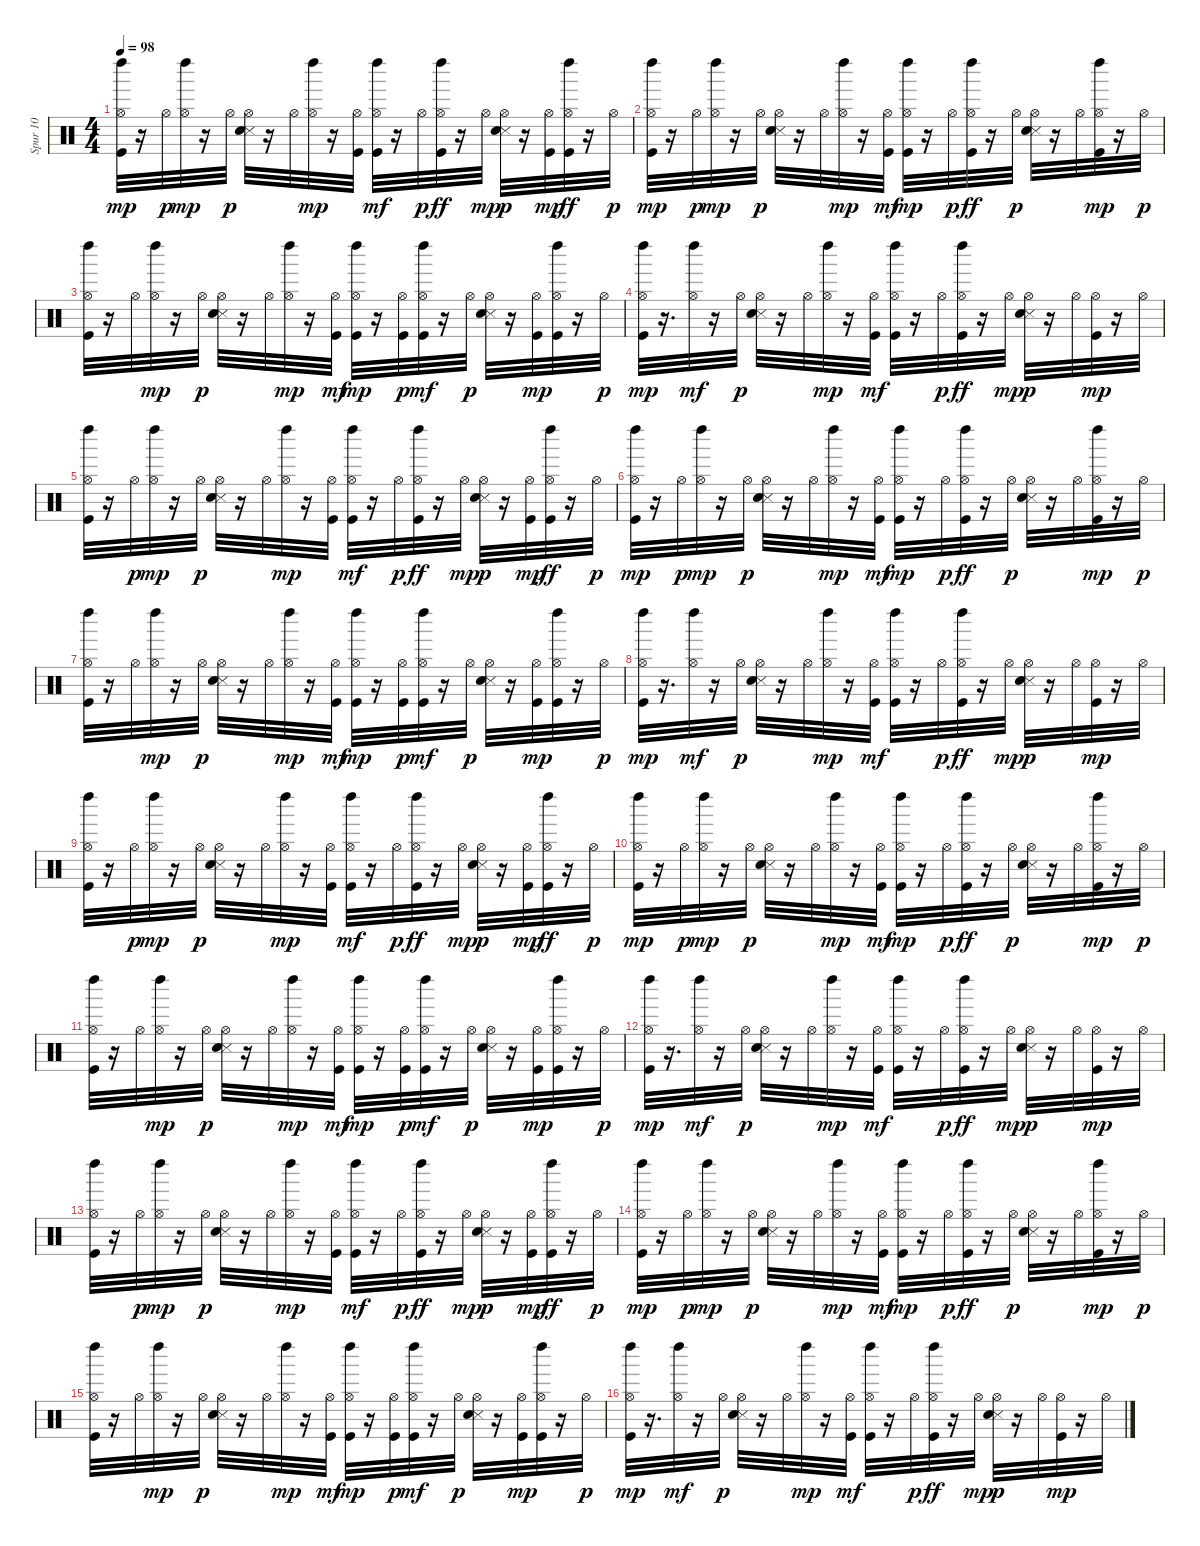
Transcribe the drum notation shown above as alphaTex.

\track ("Spur 10" "Spur 10") {instrument percussion}
\staff {score}
\articulation defaults
\ts (4 4)
\tempo 98
\clef neutral
\ks c
("Hi-Hat (open)" "Kick (hit)" "Left Maraca (hit)").32{dy mp} r.16 "Hi-Hat (open)".32{dy p} ("Hi-Hat (open)" "Left Maraca (hit)").32{dy mp} r.16 "Hi-Hat (open)".32{dy p} ("Hi-Hat (open)" "Snare (side stick) 3" "Electric Snare (hit)").32 r.16 "Hi-Hat (open)".32 ("Hi-Hat (open)" "Left Maraca (hit)").32{dy mp} r.16 ("Hi-Hat (open)" "Kick (hit)").32 ("Hi-Hat (open)" "Kick (hit)" "Left Maraca (hit)").32{dy mf} r.16 "Hi-Hat (open)".32{dy p} ("Hi-Hat (open)" "Kick (hit)" "Left Maraca (hit)").32{dy ff} r.16 "Hi-Hat (open)".32{dy mp} ("Hi-Hat (open)" "Snare (side stick) 3" "Electric Snare (hit)").32{dy p} r.16 ("Hi-Hat (open)" "Kick (hit)").32{dy mp} ("Hi-Hat (open)" "Kick (hit)" "Left Maraca (hit)").32{dy ff} r.16 "Hi-Hat (open)".32{dy p} |
("Hi-Hat (open)" "Kick (hit)" "Left Maraca (hit)").32{dy mp} r.16 "Hi-Hat (open)".32{dy p} ("Hi-Hat (open)" "Left Maraca (hit)").32{dy mp} r.16 "Hi-Hat (open)".32{dy p} ("Hi-Hat (open)" "Snare (side stick) 3" "Electric Snare (hit)").32 r.16 "Hi-Hat (open)".32 ("Hi-Hat (open)" "Left Maraca (hit)").32{dy mp} r.16 ("Hi-Hat (open)" "Kick (hit)").32{dy mf} ("Hi-Hat (open)" "Kick (hit)" "Left Maraca (hit)").32{dy mp} r.16 "Hi-Hat (open)".32{dy p} ("Hi-Hat (open)" "Kick (hit)" "Left Maraca (hit)").32{dy ff} r.16 "Hi-Hat (open)".32{dy p} ("Hi-Hat (open)" "Snare (side stick) 3" "Electric Snare (hit)").32 r.16 "Hi-Hat (open)".32 ("Hi-Hat (open)" "Kick (hit)" "Left Maraca (hit)").32{dy mp} r.16 "Hi-Hat (open)".32{dy p} |
("Hi-Hat (open)" "Kick (hit)" "Left Maraca (hit)").32 r.16 "Hi-Hat (open)".32 ("Hi-Hat (open)" "Left Maraca (hit)").32{dy mp} r.16 "Hi-Hat (open)".32{dy p} ("Hi-Hat (open)" "Snare (side stick) 3" "Electric Snare (hit)").32 r.16 "Hi-Hat (open)".32 ("Hi-Hat (open)" "Left Maraca (hit)").32{dy mp} r.16 ("Hi-Hat (open)" "Kick (hit)").32{dy mf} ("Hi-Hat (open)" "Kick (hit)" "Left Maraca (hit)").32{dy mp} r.16 ("Hi-Hat (open)" "Kick (hit)").32{dy p} ("Hi-Hat (open)" "Kick (hit)" "Left Maraca (hit)").32{dy mf} r.16 "Hi-Hat (open)".32{dy p} ("Hi-Hat (open)" "Snare (side stick) 3" "Electric Snare (hit)").32 r.16 ("Hi-Hat (open)" "Kick (hit)").32{dy mp} ("Hi-Hat (open)" "Kick (hit)" "Left Maraca (hit)").32 r.16 "Hi-Hat (open)".32{dy p} |
("Hi-Hat (open)" "Kick (hit)" "Left Maraca (hit)").32{dy mp} r.16{d} ("Hi-Hat (open)" "Left Maraca (hit)").32{dy mf} r.16 "Hi-Hat (open)".32{dy p} ("Hi-Hat (open)" "Snare (side stick) 3" "Electric Snare (hit)").32 r.16 "Hi-Hat (open)".32 ("Hi-Hat (open)" "Left Maraca (hit)").32{dy mp} r.16 ("Hi-Hat (open)" "Kick (hit)").32{dy mf} ("Hi-Hat (open)" "Kick (hit)" "Left Maraca (hit)").32 r.16 "Hi-Hat (open)".32{dy p} ("Hi-Hat (open)" "Kick (hit)" "Left Maraca (hit)").32{dy ff} r.16 "Hi-Hat (open)".32{dy mp} ("Hi-Hat (open)" "Snare (side stick) 3" "Electric Snare (hit)").32{dy p} r.16 "Hi-Hat (open)".32 ("Hi-Hat (open)" "Kick (hit)").32{dy mp} r.16 "Hi-Hat (open)".32 |
("Hi-Hat (open)" "Kick (hit)" "Left Maraca (hit)").32 r.16 "Hi-Hat (open)".32{dy p} ("Hi-Hat (open)" "Left Maraca (hit)").32{dy mp} r.16 "Hi-Hat (open)".32{dy p} ("Hi-Hat (open)" "Snare (side stick) 3" "Electric Snare (hit)").32 r.16 "Hi-Hat (open)".32 ("Hi-Hat (open)" "Left Maraca (hit)").32{dy mp} r.16 ("Hi-Hat (open)" "Kick (hit)").32 ("Hi-Hat (open)" "Kick (hit)" "Left Maraca (hit)").32{dy mf} r.16 "Hi-Hat (open)".32{dy p} ("Hi-Hat (open)" "Kick (hit)" "Left Maraca (hit)").32{dy ff} r.16 "Hi-Hat (open)".32{dy mp} ("Hi-Hat (open)" "Snare (side stick) 3" "Electric Snare (hit)").32{dy p} r.16 ("Hi-Hat (open)" "Kick (hit)").32{dy mp} ("Hi-Hat (open)" "Kick (hit)" "Left Maraca (hit)").32{dy ff} r.16 "Hi-Hat (open)".32{dy p} |
("Hi-Hat (open)" "Kick (hit)" "Left Maraca (hit)").32{dy mp} r.16 "Hi-Hat (open)".32{dy p} ("Hi-Hat (open)" "Left Maraca (hit)").32{dy mp} r.16 "Hi-Hat (open)".32{dy p} ("Hi-Hat (open)" "Snare (side stick) 3" "Electric Snare (hit)").32 r.16 "Hi-Hat (open)".32 ("Hi-Hat (open)" "Left Maraca (hit)").32{dy mp} r.16 ("Hi-Hat (open)" "Kick (hit)").32{dy mf} ("Hi-Hat (open)" "Kick (hit)" "Left Maraca (hit)").32{dy mp} r.16 "Hi-Hat (open)".32{dy p} ("Hi-Hat (open)" "Kick (hit)" "Left Maraca (hit)").32{dy ff} r.16 "Hi-Hat (open)".32{dy p} ("Hi-Hat (open)" "Snare (side stick) 3" "Electric Snare (hit)").32 r.16 "Hi-Hat (open)".32 ("Hi-Hat (open)" "Kick (hit)" "Left Maraca (hit)").32{dy mp} r.16 "Hi-Hat (open)".32{dy p} |
("Hi-Hat (open)" "Kick (hit)" "Left Maraca (hit)").32 r.16 "Hi-Hat (open)".32 ("Hi-Hat (open)" "Left Maraca (hit)").32{dy mp} r.16 "Hi-Hat (open)".32{dy p} ("Hi-Hat (open)" "Snare (side stick) 3" "Electric Snare (hit)").32 r.16 "Hi-Hat (open)".32 ("Hi-Hat (open)" "Left Maraca (hit)").32{dy mp} r.16 ("Hi-Hat (open)" "Kick (hit)").32{dy mf} ("Hi-Hat (open)" "Kick (hit)" "Left Maraca (hit)").32{dy mp} r.16 ("Hi-Hat (open)" "Kick (hit)").32{dy p} ("Hi-Hat (open)" "Kick (hit)" "Left Maraca (hit)").32{dy mf} r.16 "Hi-Hat (open)".32{dy p} ("Hi-Hat (open)" "Snare (side stick) 3" "Electric Snare (hit)").32 r.16 ("Hi-Hat (open)" "Kick (hit)").32{dy mp} ("Hi-Hat (open)" "Kick (hit)" "Left Maraca (hit)").32 r.16 "Hi-Hat (open)".32{dy p} |
("Hi-Hat (open)" "Kick (hit)" "Left Maraca (hit)").32{dy mp} r.16{d} ("Hi-Hat (open)" "Left Maraca (hit)").32{dy mf} r.16 "Hi-Hat (open)".32{dy p} ("Hi-Hat (open)" "Snare (side stick) 3" "Electric Snare (hit)").32 r.16 "Hi-Hat (open)".32 ("Hi-Hat (open)" "Left Maraca (hit)").32{dy mp} r.16 ("Hi-Hat (open)" "Kick (hit)").32{dy mf} ("Hi-Hat (open)" "Kick (hit)" "Left Maraca (hit)").32 r.16 "Hi-Hat (open)".32{dy p} ("Hi-Hat (open)" "Kick (hit)" "Left Maraca (hit)").32{dy ff} r.16 "Hi-Hat (open)".32{dy mp} ("Hi-Hat (open)" "Snare (side stick) 3" "Electric Snare (hit)").32{dy p} r.16 "Hi-Hat (open)".32 ("Hi-Hat (open)" "Kick (hit)").32{dy mp} r.16 "Hi-Hat (open)".32 |
("Hi-Hat (open)" "Kick (hit)" "Left Maraca (hit)").32 r.16 "Hi-Hat (open)".32{dy p} ("Hi-Hat (open)" "Left Maraca (hit)").32{dy mp} r.16 "Hi-Hat (open)".32{dy p} ("Hi-Hat (open)" "Snare (side stick) 3" "Electric Snare (hit)").32 r.16 "Hi-Hat (open)".32 ("Hi-Hat (open)" "Left Maraca (hit)").32{dy mp} r.16 ("Hi-Hat (open)" "Kick (hit)").32 ("Hi-Hat (open)" "Kick (hit)" "Left Maraca (hit)").32{dy mf} r.16 "Hi-Hat (open)".32{dy p} ("Hi-Hat (open)" "Kick (hit)" "Left Maraca (hit)").32{dy ff} r.16 "Hi-Hat (open)".32{dy mp} ("Hi-Hat (open)" "Snare (side stick) 3" "Electric Snare (hit)").32{dy p} r.16 ("Hi-Hat (open)" "Kick (hit)").32{dy mp} ("Hi-Hat (open)" "Kick (hit)" "Left Maraca (hit)").32{dy ff} r.16 "Hi-Hat (open)".32{dy p} |
("Hi-Hat (open)" "Kick (hit)" "Left Maraca (hit)").32{dy mp} r.16 "Hi-Hat (open)".32{dy p} ("Hi-Hat (open)" "Left Maraca (hit)").32{dy mp} r.16 "Hi-Hat (open)".32{dy p} ("Hi-Hat (open)" "Snare (side stick) 3" "Electric Snare (hit)").32 r.16 "Hi-Hat (open)".32 ("Hi-Hat (open)" "Left Maraca (hit)").32{dy mp} r.16 ("Hi-Hat (open)" "Kick (hit)").32{dy mf} ("Hi-Hat (open)" "Kick (hit)" "Left Maraca (hit)").32{dy mp} r.16 "Hi-Hat (open)".32{dy p} ("Hi-Hat (open)" "Kick (hit)" "Left Maraca (hit)").32{dy ff} r.16 "Hi-Hat (open)".32{dy p} ("Hi-Hat (open)" "Snare (side stick) 3" "Electric Snare (hit)").32 r.16 "Hi-Hat (open)".32 ("Hi-Hat (open)" "Kick (hit)" "Left Maraca (hit)").32{dy mp} r.16 "Hi-Hat (open)".32{dy p} |
("Hi-Hat (open)" "Kick (hit)" "Left Maraca (hit)").32 r.16 "Hi-Hat (open)".32 ("Hi-Hat (open)" "Left Maraca (hit)").32{dy mp} r.16 "Hi-Hat (open)".32{dy p} ("Hi-Hat (open)" "Snare (side stick) 3" "Electric Snare (hit)").32 r.16 "Hi-Hat (open)".32 ("Hi-Hat (open)" "Left Maraca (hit)").32{dy mp} r.16 ("Hi-Hat (open)" "Kick (hit)").32{dy mf} ("Hi-Hat (open)" "Kick (hit)" "Left Maraca (hit)").32{dy mp} r.16 ("Hi-Hat (open)" "Kick (hit)").32{dy p} ("Hi-Hat (open)" "Kick (hit)" "Left Maraca (hit)").32{dy mf} r.16 "Hi-Hat (open)".32{dy p} ("Hi-Hat (open)" "Snare (side stick) 3" "Electric Snare (hit)").32 r.16 ("Hi-Hat (open)" "Kick (hit)").32{dy mp} ("Hi-Hat (open)" "Kick (hit)" "Left Maraca (hit)").32 r.16 "Hi-Hat (open)".32{dy p} |
("Hi-Hat (open)" "Kick (hit)" "Left Maraca (hit)").32{dy mp} r.16{d} ("Hi-Hat (open)" "Left Maraca (hit)").32{dy mf} r.16 "Hi-Hat (open)".32{dy p} ("Hi-Hat (open)" "Snare (side stick) 3" "Electric Snare (hit)").32 r.16 "Hi-Hat (open)".32 ("Hi-Hat (open)" "Left Maraca (hit)").32{dy mp} r.16 ("Hi-Hat (open)" "Kick (hit)").32{dy mf} ("Hi-Hat (open)" "Kick (hit)" "Left Maraca (hit)").32 r.16 "Hi-Hat (open)".32{dy p} ("Hi-Hat (open)" "Kick (hit)" "Left Maraca (hit)").32{dy ff} r.16 "Hi-Hat (open)".32{dy mp} ("Hi-Hat (open)" "Snare (side stick) 3" "Electric Snare (hit)").32{dy p} r.16 "Hi-Hat (open)".32 ("Hi-Hat (open)" "Kick (hit)").32{dy mp} r.16 "Hi-Hat (open)".32 |
("Hi-Hat (open)" "Kick (hit)" "Left Maraca (hit)").32 r.16 "Hi-Hat (open)".32{dy p} ("Hi-Hat (open)" "Left Maraca (hit)").32{dy mp} r.16 "Hi-Hat (open)".32{dy p} ("Hi-Hat (open)" "Snare (side stick) 3" "Electric Snare (hit)").32 r.16 "Hi-Hat (open)".32 ("Hi-Hat (open)" "Left Maraca (hit)").32{dy mp} r.16 ("Hi-Hat (open)" "Kick (hit)").32 ("Hi-Hat (open)" "Kick (hit)" "Left Maraca (hit)").32{dy mf} r.16 "Hi-Hat (open)".32{dy p} ("Hi-Hat (open)" "Kick (hit)" "Left Maraca (hit)").32{dy ff} r.16 "Hi-Hat (open)".32{dy mp} ("Hi-Hat (open)" "Snare (side stick) 3" "Electric Snare (hit)").32{dy p} r.16 ("Hi-Hat (open)" "Kick (hit)").32{dy mp} ("Hi-Hat (open)" "Kick (hit)" "Left Maraca (hit)").32{dy ff} r.16 "Hi-Hat (open)".32{dy p} |
("Hi-Hat (open)" "Kick (hit)" "Left Maraca (hit)").32{dy mp} r.16 "Hi-Hat (open)".32{dy p} ("Hi-Hat (open)" "Left Maraca (hit)").32{dy mp} r.16 "Hi-Hat (open)".32{dy p} ("Hi-Hat (open)" "Snare (side stick) 3" "Electric Snare (hit)").32 r.16 "Hi-Hat (open)".32 ("Hi-Hat (open)" "Left Maraca (hit)").32{dy mp} r.16 ("Hi-Hat (open)" "Kick (hit)").32{dy mf} ("Hi-Hat (open)" "Kick (hit)" "Left Maraca (hit)").32{dy mp} r.16 "Hi-Hat (open)".32{dy p} ("Hi-Hat (open)" "Kick (hit)" "Left Maraca (hit)").32{dy ff} r.16 "Hi-Hat (open)".32{dy p} ("Hi-Hat (open)" "Snare (side stick) 3" "Electric Snare (hit)").32 r.16 "Hi-Hat (open)".32 ("Hi-Hat (open)" "Kick (hit)" "Left Maraca (hit)").32{dy mp} r.16 "Hi-Hat (open)".32{dy p} |
("Hi-Hat (open)" "Kick (hit)" "Left Maraca (hit)").32 r.16 "Hi-Hat (open)".32 ("Hi-Hat (open)" "Left Maraca (hit)").32{dy mp} r.16 "Hi-Hat (open)".32{dy p} ("Hi-Hat (open)" "Snare (side stick) 3" "Electric Snare (hit)").32 r.16 "Hi-Hat (open)".32 ("Hi-Hat (open)" "Left Maraca (hit)").32{dy mp} r.16 ("Hi-Hat (open)" "Kick (hit)").32{dy mf} ("Hi-Hat (open)" "Kick (hit)" "Left Maraca (hit)").32{dy mp} r.16 ("Hi-Hat (open)" "Kick (hit)").32{dy p} ("Hi-Hat (open)" "Kick (hit)" "Left Maraca (hit)").32{dy mf} r.16 "Hi-Hat (open)".32{dy p} ("Hi-Hat (open)" "Snare (side stick) 3" "Electric Snare (hit)").32 r.16 ("Hi-Hat (open)" "Kick (hit)").32{dy mp} ("Hi-Hat (open)" "Kick (hit)" "Left Maraca (hit)").32 r.16 "Hi-Hat (open)".32{dy p} |
("Hi-Hat (open)" "Kick (hit)" "Left Maraca (hit)").32{dy mp} r.16{d} ("Hi-Hat (open)" "Left Maraca (hit)").32{dy mf} r.16 "Hi-Hat (open)".32{dy p} ("Hi-Hat (open)" "Snare (side stick) 3" "Electric Snare (hit)").32 r.16 "Hi-Hat (open)".32 ("Hi-Hat (open)" "Left Maraca (hit)").32{dy mp} r.16 ("Hi-Hat (open)" "Kick (hit)").32{dy mf} ("Hi-Hat (open)" "Kick (hit)" "Left Maraca (hit)").32 r.16 "Hi-Hat (open)".32{dy p} ("Hi-Hat (open)" "Kick (hit)" "Left Maraca (hit)").32{dy ff} r.16 "Hi-Hat (open)".32{dy mp} ("Hi-Hat (open)" "Snare (side stick) 3" "Electric Snare (hit)").32{dy p} r.16 "Hi-Hat (open)".32 ("Hi-Hat (open)" "Kick (hit)").32{dy mp} r.16 "Hi-Hat (open)".32
